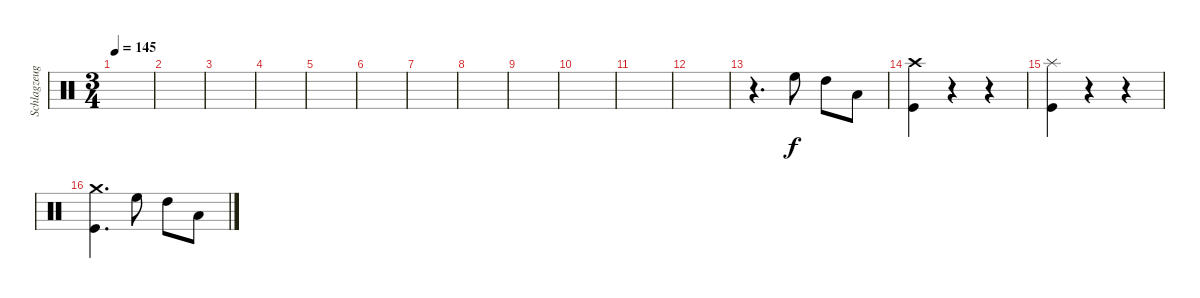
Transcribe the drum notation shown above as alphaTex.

\track ("Schlagzeug" "Schlagzeug") {instrument percussion}
\staff {score}
\articulation defaults
\ts (3 4)
\tempo 145
\clef neutral
\ks c
|
|
|
|
|
|
|
|
|
|
|
|
r.4{d} "High Floor Tom (hit)".8 "High Tom (hit)".8 "Low Tom (hit)".8 |
("Crash high (hit)" "Kick (hit)").4 r.4 r.4 |
("Splash (hit)" "Kick (hit)").4 r.4 r.4 |
("Crash medium (hit)" "Kick (hit)").4{d} "High Floor Tom (hit)".8 "High Tom (hit)".8 "Low Tom (hit)".8
